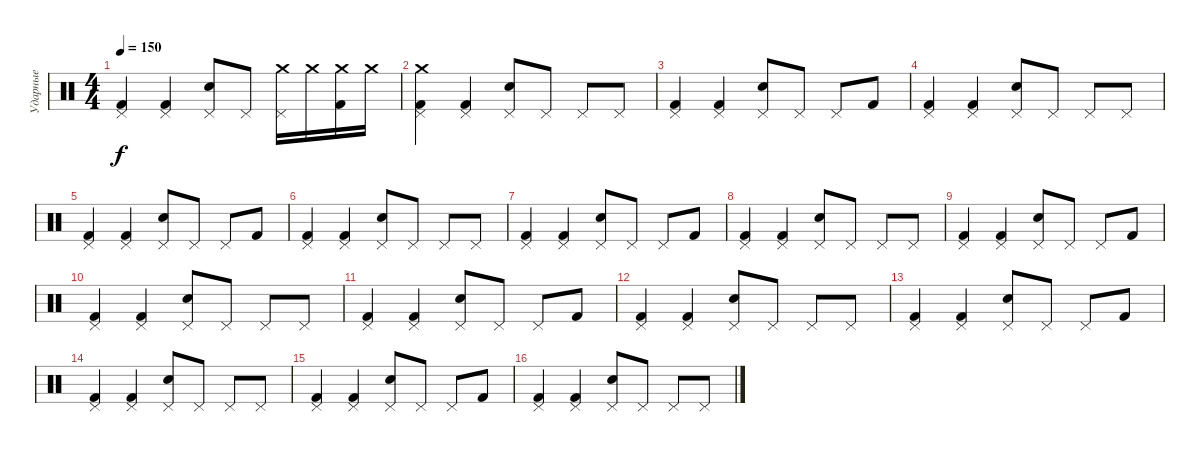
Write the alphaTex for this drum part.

\track ("Ударные" "Ударные") {instrument percussion}
\staff {score}
\articulation defaults
\ts (4 4)
\tempo 150
\clef neutral
\ks c
("Pedal Hi-Hat (hit)" "Kick (hit) 2").4{dy f} ("Pedal Hi-Hat (hit)" "Kick (hit) 2").4 ("Pedal Hi-Hat (hit)" "Snare (hit) 2").8 "Pedal Hi-Hat (hit)".8 ("Crash medium (hit)" "Pedal Hi-Hat (hit)").16 "Crash medium (hit)".16 ("Crash medium (hit)" "Kick (hit) 2").16 "Crash medium (hit)".16 |
("Crash medium (hit)" "Pedal Hi-Hat (hit)" "Kick (hit) 2").4 ("Pedal Hi-Hat (hit)" "Kick (hit) 2").4 ("Pedal Hi-Hat (hit)" "Snare (hit) 2").8 "Pedal Hi-Hat (hit)".8 "Pedal Hi-Hat (hit)".8 "Pedal Hi-Hat (hit)".8 |
("Pedal Hi-Hat (hit)" "Kick (hit) 2").4 ("Pedal Hi-Hat (hit)" "Kick (hit) 2").4 ("Pedal Hi-Hat (hit)" "Snare (hit) 2").8 "Pedal Hi-Hat (hit)".8 "Pedal Hi-Hat (hit)".8 "Kick (hit) 2".8 |
("Pedal Hi-Hat (hit)" "Kick (hit) 2").4 ("Pedal Hi-Hat (hit)" "Kick (hit) 2").4 ("Pedal Hi-Hat (hit)" "Snare (hit) 2").8 "Pedal Hi-Hat (hit)".8 "Pedal Hi-Hat (hit)".8 "Pedal Hi-Hat (hit)".8 |
("Pedal Hi-Hat (hit)" "Kick (hit) 2").4 ("Pedal Hi-Hat (hit)" "Kick (hit) 2").4 ("Pedal Hi-Hat (hit)" "Snare (hit) 2").8 "Pedal Hi-Hat (hit)".8 "Pedal Hi-Hat (hit)".8 "Kick (hit) 2".8 |
("Pedal Hi-Hat (hit)" "Kick (hit) 2").4 ("Pedal Hi-Hat (hit)" "Kick (hit) 2").4 ("Pedal Hi-Hat (hit)" "Snare (hit) 2").8 "Pedal Hi-Hat (hit)".8 "Pedal Hi-Hat (hit)".8 "Pedal Hi-Hat (hit)".8 |
("Pedal Hi-Hat (hit)" "Kick (hit) 2").4 ("Pedal Hi-Hat (hit)" "Kick (hit) 2").4 ("Pedal Hi-Hat (hit)" "Snare (hit) 2").8 "Pedal Hi-Hat (hit)".8 "Pedal Hi-Hat (hit)".8 "Kick (hit) 2".8 |
("Pedal Hi-Hat (hit)" "Kick (hit) 2").4 ("Pedal Hi-Hat (hit)" "Kick (hit) 2").4 ("Pedal Hi-Hat (hit)" "Snare (hit) 2").8 "Pedal Hi-Hat (hit)".8 "Pedal Hi-Hat (hit)".8 "Pedal Hi-Hat (hit)".8 |
("Pedal Hi-Hat (hit)" "Kick (hit) 2").4 ("Pedal Hi-Hat (hit)" "Kick (hit) 2").4 ("Pedal Hi-Hat (hit)" "Snare (hit) 2").8 "Pedal Hi-Hat (hit)".8 "Pedal Hi-Hat (hit)".8 "Kick (hit) 2".8 |
("Pedal Hi-Hat (hit)" "Kick (hit) 2").4 ("Pedal Hi-Hat (hit)" "Kick (hit) 2").4 ("Pedal Hi-Hat (hit)" "Snare (hit) 2").8 "Pedal Hi-Hat (hit)".8 "Pedal Hi-Hat (hit)".8 "Pedal Hi-Hat (hit)".8 |
("Pedal Hi-Hat (hit)" "Kick (hit) 2").4 ("Pedal Hi-Hat (hit)" "Kick (hit) 2").4 ("Pedal Hi-Hat (hit)" "Snare (hit) 2").8 "Pedal Hi-Hat (hit)".8 "Pedal Hi-Hat (hit)".8 "Kick (hit) 2".8 |
("Pedal Hi-Hat (hit)" "Kick (hit) 2").4 ("Pedal Hi-Hat (hit)" "Kick (hit) 2").4 ("Pedal Hi-Hat (hit)" "Snare (hit) 2").8 "Pedal Hi-Hat (hit)".8 "Pedal Hi-Hat (hit)".8 "Pedal Hi-Hat (hit)".8 |
("Pedal Hi-Hat (hit)" "Kick (hit) 2").4 ("Pedal Hi-Hat (hit)" "Kick (hit) 2").4 ("Pedal Hi-Hat (hit)" "Snare (hit) 2").8 "Pedal Hi-Hat (hit)".8 "Pedal Hi-Hat (hit)".8 "Kick (hit) 2".8 |
("Pedal Hi-Hat (hit)" "Kick (hit) 2").4 ("Pedal Hi-Hat (hit)" "Kick (hit) 2").4 ("Pedal Hi-Hat (hit)" "Snare (hit) 2").8 "Pedal Hi-Hat (hit)".8 "Pedal Hi-Hat (hit)".8 "Pedal Hi-Hat (hit)".8 |
("Pedal Hi-Hat (hit)" "Kick (hit) 2").4 ("Pedal Hi-Hat (hit)" "Kick (hit) 2").4 ("Pedal Hi-Hat (hit)" "Snare (hit) 2").8 "Pedal Hi-Hat (hit)".8 "Pedal Hi-Hat (hit)".8 "Kick (hit) 2".8 |
("Pedal Hi-Hat (hit)" "Kick (hit) 2").4 ("Pedal Hi-Hat (hit)" "Kick (hit) 2").4 ("Pedal Hi-Hat (hit)" "Snare (hit) 2").8 "Pedal Hi-Hat (hit)".8 "Pedal Hi-Hat (hit)".8 "Pedal Hi-Hat (hit)".8
